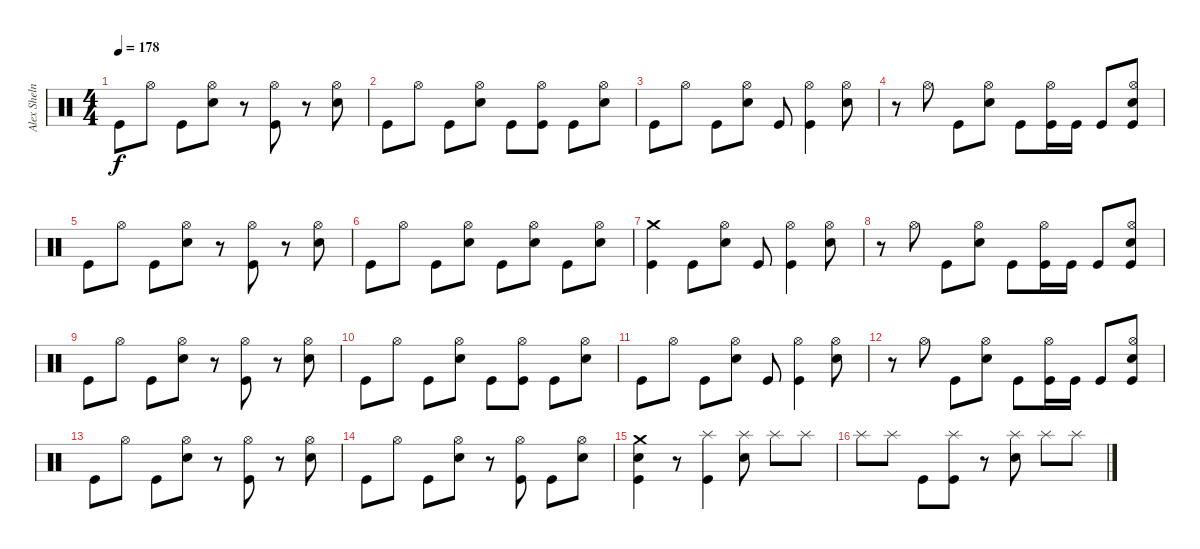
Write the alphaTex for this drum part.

\track ("Alex Shelnut" "Alex Sheln") {instrument percussion}
\staff {score}
\articulation defaults
\ts (4 4)
\tempo 178
\clef neutral
\ks c "Kick (hit)".8{dy f} "Hi-Hat (open)".8 "Kick (hit)".8
("Hi-Hat (open)" "Electric Snare (hit)").8 r.8 ("Hi-Hat (open)" "Kick (hit)").8 r.8 ("Hi-Hat (open)" "Electric Snare (hit)").8 |
"Kick (hit)".8 "Hi-Hat (open)".8 "Kick (hit)".8 ("Hi-Hat (open)" "Electric Snare (hit)").8 "Kick (hit)".8 ("Hi-Hat (open)" "Kick (hit)").8 "Kick (hit)".8 ("Hi-Hat (open)" "Electric Snare (hit)").8 |
"Kick (hit)".8 "Hi-Hat (open)".8 "Kick (hit)".8 ("Hi-Hat (open)" "Electric Snare (hit)").8 "Kick (hit)".8 ("Hi-Hat (open)" "Kick (hit)").4 ("Hi-Hat (open)" "Electric Snare (hit)").8 |
r.8 "Hi-Hat (open)".8 "Kick (hit)".8 ("Hi-Hat (open)" "Electric Snare (hit)").8 "Kick (hit)".8 ("Hi-Hat (open)" "Kick (hit)").16 "Kick (hit)".16 "Kick (hit)".8 ("Hi-Hat (open)" "Electric Snare (hit)" "Kick (hit)").8 |
"Kick (hit)".8 "Hi-Hat (open)".8 "Kick (hit)".8 ("Hi-Hat (open)" "Electric Snare (hit)").8 r.8 ("Hi-Hat (open)" "Kick (hit)").8 r.8 ("Hi-Hat (open)" "Electric Snare (hit)").8 |
"Kick (hit)".8 "Hi-Hat (open)".8 "Kick (hit)".8 ("Hi-Hat (open)" "Electric Snare (hit)").8 "Kick (hit)".8 ("Hi-Hat (open)" "Electric Snare (hit)").8 "Kick (hit)".8 ("Hi-Hat (open)" "Electric Snare (hit)").8 |
("Crash medium (hit)" "Kick (hit)").4 "Kick (hit)".8 ("Hi-Hat (open)" "Electric Snare (hit)").8 "Kick (hit)".8 ("Hi-Hat (open)" "Kick (hit)").4 ("Hi-Hat (open)" "Electric Snare (hit)").8 |
r.8 "Hi-Hat (open)".8 "Kick (hit)".8 ("Hi-Hat (open)" "Electric Snare (hit)").8 "Kick (hit)".8 ("Hi-Hat (open)" "Kick (hit)").16 "Kick (hit)".16 "Kick (hit)".8 ("Hi-Hat (open)" "Electric Snare (hit)" "Kick (hit)").8 |
"Kick (hit)".8 "Hi-Hat (open)".8 "Kick (hit)".8 ("Hi-Hat (open)" "Electric Snare (hit)").8 r.8 ("Hi-Hat (open)" "Kick (hit)").8 r.8 ("Hi-Hat (open)" "Electric Snare (hit)").8 |
"Kick (hit)".8 "Hi-Hat (open)".8 "Kick (hit)".8 ("Hi-Hat (open)" "Electric Snare (hit)").8 "Kick (hit)".8 ("Hi-Hat (open)" "Kick (hit)").8 "Kick (hit)".8 ("Hi-Hat (open)" "Electric Snare (hit)").8 |
"Kick (hit)".8 "Hi-Hat (open)".8 "Kick (hit)".8 ("Hi-Hat (open)" "Electric Snare (hit)").8 "Kick (hit)".8 ("Hi-Hat (open)" "Kick (hit)").4 ("Hi-Hat (open)" "Electric Snare (hit)").8 |
r.8 "Hi-Hat (open)".8 "Kick (hit)".8 ("Hi-Hat (open)" "Electric Snare (hit)").8 "Kick (hit)".8 ("Hi-Hat (open)" "Kick (hit)").16 "Kick (hit)".16 "Kick (hit)".8 ("Hi-Hat (open)" "Electric Snare (hit)" "Kick (hit)").8 |
"Kick (hit)".8 "Hi-Hat (open)".8 "Kick (hit)".8 ("Hi-Hat (open)" "Electric Snare (hit)").8 r.8 ("Hi-Hat (open)" "Kick (hit)").8 r.8 ("Hi-Hat (open)" "Electric Snare (hit)").8 |
"Kick (hit)".8 "Hi-Hat (open)".8 "Kick (hit)".8 ("Hi-Hat (open)" "Electric Snare (hit)").8 r.8 ("Hi-Hat (open)" "Kick (hit)").8 "Kick (hit)".8 ("Hi-Hat (open)" "Electric Snare (hit)").8 |
("Crash medium (hit)" "Electric Snare (hit)" "Kick (hit)").4 r.8 ("Splash (hit)" "Kick (hit)").4 ("Splash (hit)" "Electric Snare (hit)").8 "Splash (hit)".8 "Splash (hit)".8 |
"Splash (hit)".8 "Splash (hit)".8 "Kick (hit)".8 ("Splash (hit)" "Kick (hit)").8 r.8 ("Splash (hit)" "Electric Snare (hit)").8 "Splash (hit)".8 "Splash (hit)".8
